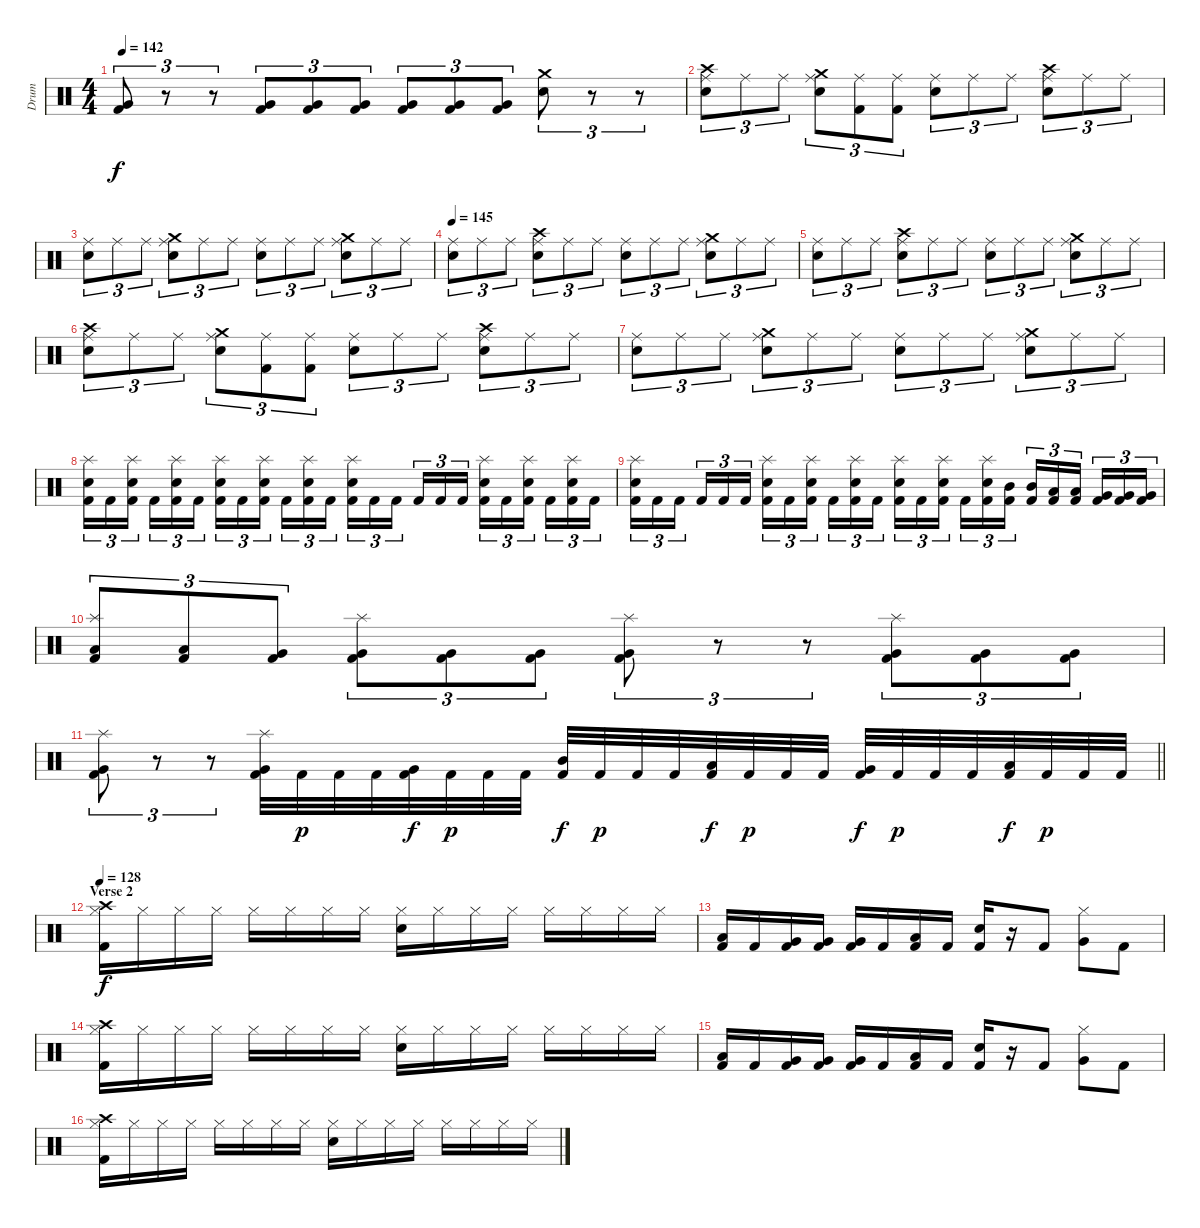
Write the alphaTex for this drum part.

\track ("Drum" "Drum") {instrument percussion}
\staff {score}
\articulation defaults
\ts (4 4)
\tempo 142
\clef neutral
\ks c
("Very Low Tom (hit)" "Kick (hit) 2").8{tu (3 2) dy f} r.8{tu (3 2)} r.8{tu (3 2)} ("Very Low Tom (hit)" "Kick (hit) 2").8{tu (3 2)} ("Very Low Tom (hit)" "Kick (hit) 2").8{tu (3 2)} ("Very Low Tom (hit)" "Kick (hit) 2").8{tu (3 2)} ("Very Low Tom (hit)" "Kick (hit) 2").8{tu (3 2)} ("Very Low Tom (hit)" "Kick (hit) 2").8{tu (3 2)} ("Very Low Tom (hit)" "Kick (hit) 2").8{tu (3 2)} ("Crash medium (hit)" "Electric Snare (hit)").8{tu (3 2)} r.8{tu (3 2)} r.8{tu (3 2)} |
("Crash high (hit)" "Ride (middle)" "Electric Snare (hit)").8{tu (3 2)} "Ride (middle)".8{tu (3 2)} "Ride (middle)".8{tu (3 2)} ("Crash medium (hit)" "Ride (middle)" "Electric Snare (hit)").8{tu (3 2)} ("Ride (middle)" "Kick (hit) 2").8{tu (3 2)} ("Ride (middle)" "Kick (hit) 2").8{tu (3 2)} ("Ride (middle)" "Electric Snare (hit)").8{tu (3 2)} "Ride (middle)".8{tu (3 2)} "Ride (middle)".8{tu (3 2)} ("Crash high (hit)" "Ride (middle)" "Electric Snare (hit)").8{tu (3 2)} "Ride (middle)".8{tu (3 2)} "Ride (middle)".8{tu (3 2)} |
("Ride (middle)" "Electric Snare (hit)").8{tu (3 2)} "Ride (middle)".8{tu (3 2)} "Ride (middle)".8{tu (3 2)} ("Crash medium (hit)" "Ride (middle)" "Electric Snare (hit)").8{tu (3 2)} "Ride (middle)".8{tu (3 2)} "Ride (middle)".8{tu (3 2)} ("Ride (middle)" "Electric Snare (hit)").8{tu (3 2)} "Ride (middle)".8{tu (3 2)} "Ride (middle)".8{tu (3 2)} ("Crash medium (hit)" "Ride (middle)" "Electric Snare (hit)").8{tu (3 2)} "Ride (middle)".8{tu (3 2)} "Ride (middle)".8{tu (3 2)} |
\tempo 145
("Ride (middle)" "Electric Snare (hit)").8{tu (3 2)} "Ride (middle)".8{tu (3 2)} "Ride (middle)".8{tu (3 2)} ("Crash high (hit)" "Ride (middle)" "Electric Snare (hit)").8{tu (3 2)} "Ride (middle)".8{tu (3 2)} "Ride (middle)".8{tu (3 2)} ("Ride (middle)" "Electric Snare (hit)").8{tu (3 2)} "Ride (middle)".8{tu (3 2)} "Ride (middle)".8{tu (3 2)} ("Crash medium (hit)" "Ride (middle)" "Electric Snare (hit)").8{tu (3 2)} "Ride (middle)".8{tu (3 2)} "Ride (middle)".8{tu (3 2)} |
("Ride (middle)" "Electric Snare (hit)").8{tu (3 2)} "Ride (middle)".8{tu (3 2)} "Ride (middle)".8{tu (3 2)} ("Crash high (hit)" "Ride (middle)" "Electric Snare (hit)").8{tu (3 2)} "Ride (middle)".8{tu (3 2)} "Ride (middle)".8{tu (3 2)} ("Ride (middle)" "Electric Snare (hit)").8{tu (3 2)} "Ride (middle)".8{tu (3 2)} "Ride (middle)".8{tu (3 2)} ("Crash medium (hit)" "Ride (middle)" "Electric Snare (hit)").8{tu (3 2)} "Ride (middle)".8{tu (3 2)} "Ride (middle)".8{tu (3 2)} |
("Crash high (hit)" "Ride (middle)" "Electric Snare (hit)").8{tu (3 2)} "Ride (middle)".8{tu (3 2)} "Ride (middle)".8{tu (3 2)} ("Crash medium (hit)" "Ride (middle)" "Electric Snare (hit)").8{tu (3 2)} ("Ride (middle)" "Kick (hit) 2").8{tu (3 2)} ("Ride (middle)" "Kick (hit) 2").8{tu (3 2)} ("Ride (middle)" "Electric Snare (hit)").8{tu (3 2)} "Ride (middle)".8{tu (3 2)} "Ride (middle)".8{tu (3 2)} ("Crash high (hit)" "Ride (middle)" "Electric Snare (hit)").8{tu (3 2)} "Ride (middle)".8{tu (3 2)} "Ride (middle)".8{tu (3 2)} |
("Ride (middle)" "Electric Snare (hit)").8{tu (3 2)} "Ride (middle)".8{tu (3 2)} "Ride (middle)".8{tu (3 2)} ("Crash medium (hit)" "Ride (middle)" "Electric Snare (hit)").8{tu (3 2)} "Ride (middle)".8{tu (3 2)} "Ride (middle)".8{tu (3 2)} ("Ride (middle)" "Electric Snare (hit)").8{tu (3 2)} "Ride (middle)".8{tu (3 2)} "Ride (middle)".8{tu (3 2)} ("Crash medium (hit)" "Ride (middle)" "Electric Snare (hit)").8{tu (3 2)} "Ride (middle)".8{tu (3 2)} "Ride (middle)".8{tu (3 2)} |
("Splash (hit)" "Electric Snare (hit)" "Kick (hit) 2").16{tu (3 2)} "Kick (hit) 2".16{tu (3 2)} ("Splash (hit)" "Electric Snare (hit)" "Kick (hit) 2").16{tu (3 2) beam splitsecondary} "Kick (hit) 2".16{tu (3 2)} ("Splash (hit)" "Electric Snare (hit)" "Kick (hit) 2").16{tu (3 2)} "Kick (hit) 2".16{tu (3 2)} ("Splash (hit)" "Electric Snare (hit)" "Kick (hit) 2").16{tu (3 2)} "Kick (hit) 2".16{tu (3 2)} ("Splash (hit)" "Electric Snare (hit)" "Kick (hit) 2").16{tu (3 2) beam splitsecondary} "Kick (hit) 2".16{tu (3 2)} ("Splash (hit)" "Electric Snare (hit)" "Kick (hit) 2").16{tu (3 2)} "Kick (hit) 2".16{tu (3 2)} ("Splash (hit)" "Electric Snare (hit)" "Kick (hit) 2").16{tu (3 2)} "Kick (hit) 2".16{tu (3 2)} "Kick (hit) 2".16{tu (3 2) beam splitsecondary} "Kick (hit) 2".16{tu (3 2)} "Kick (hit) 2".16{tu (3 2)} "Kick (hit) 2".16{tu (3 2)} ("Splash (hit)" "Electric Snare (hit)" "Kick (hit) 2").16{tu (3 2)} "Kick (hit) 2".16{tu (3 2)} ("Splash (hit)" "Electric Snare (hit)" "Kick (hit) 2").16{tu (3 2) beam splitsecondary} "Kick (hit) 2".16{tu (3 2)} ("Splash (hit)" "Electric Snare (hit)" "Kick (hit) 2").16{tu (3 2)} "Kick (hit) 2".16{tu (3 2)} |
("Splash (hit)" "Electric Snare (hit)" "Kick (hit) 2").16{tu (3 2)} "Kick (hit) 2".16{tu (3 2)} "Kick (hit) 2".16{tu (3 2) beam splitsecondary} "Kick (hit) 2".16{tu (3 2)} "Kick (hit) 2".16{tu (3 2)} "Kick (hit) 2".16{tu (3 2)} ("Splash (hit)" "Electric Snare (hit)" "Kick (hit) 2").16{tu (3 2)} "Kick (hit) 2".16{tu (3 2)} ("Splash (hit)" "Electric Snare (hit)" "Kick (hit) 2").16{tu (3 2) beam splitsecondary} "Kick (hit) 2".16{tu (3 2)} ("Splash (hit)" "Electric Snare (hit)" "Kick (hit) 2").16{tu (3 2)} "Kick (hit) 2".16{tu (3 2)} ("Splash (hit)" "Electric Snare (hit)" "Kick (hit) 2").16{tu (3 2)} "Kick (hit) 2".16{tu (3 2)} ("Splash (hit)" "Electric Snare (hit)" "Kick (hit) 2").16{tu (3 2) beam splitsecondary} "Kick (hit) 2".16{tu (3 2)} ("Splash (hit)" "Electric Snare (hit)" "Kick (hit) 2").16{tu (3 2)} ("Mid Tom (hit)" "Kick (hit) 2").16{tu (3 2)} ("Mid Tom (hit)" "Kick (hit) 2").16{tu (3 2)} ("Low Tom (hit)" "Kick (hit) 2").16{tu (3 2)} ("Low Tom (hit)" "Kick (hit) 2").16{tu (3 2) beam splitsecondary} ("Very Low Tom (hit)" "Kick (hit) 2").16{tu (3 2)} ("Very Low Tom (hit)" "Kick (hit) 2").16{tu (3 2)} ("Very Low Tom (hit)" "Kick (hit) 2").16{tu (3 2)} |
("Splash (hit)" "Low Tom (hit)" "Kick (hit) 2").8{tu (3 2)} ("Low Tom (hit)" "Kick (hit) 2").8{tu (3 2)} ("Very Low Tom (hit)" "Kick (hit) 2").8{tu (3 2)} ("Splash (hit)" "Very Low Tom (hit)" "Kick (hit) 2").8{tu (3 2)} ("Very Low Tom (hit)" "Kick (hit) 2").8{tu (3 2)} ("Very Low Tom (hit)" "Kick (hit) 2").8{tu (3 2)} ("Splash (hit)" "Very Low Tom (hit)" "Kick (hit) 2").8{tu (3 2)} r.8{tu (3 2)} r.8{tu (3 2)} ("Splash (hit)" "Very Low Tom (hit)" "Kick (hit) 2").8{tu (3 2)} ("Very Low Tom (hit)" "Kick (hit) 2").8{tu (3 2)} ("Very Low Tom (hit)" "Kick (hit) 2").8{tu (3 2)} |
\barLineRight lightlight
("Splash (hit)" "Very Low Tom (hit)" "Kick (hit) 2").8{tu (3 2)} r.8{tu (3 2)} r.8{tu (3 2)} ("Splash (hit)" "Very Low Tom (hit)" "Kick (hit) 2").32 "Kick (hit) 2".32{dy p} "Kick (hit) 2".32 "Kick (hit) 2".32 ("Very Low Tom (hit)" "Kick (hit) 2").32{dy f} "Kick (hit) 2".32{dy p} "Kick (hit) 2".32 "Kick (hit) 2".32 ("Mid Tom (hit)" "Kick (hit) 2").32{dy f} "Kick (hit) 2".32{dy p} "Kick (hit) 2".32 "Kick (hit) 2".32 ("Low Tom (hit)" "Kick (hit) 2").32{dy f} "Kick (hit) 2".32{dy p} "Kick (hit) 2".32 "Kick (hit) 2".32 ("Very Low Tom (hit)" "Kick (hit) 2").32{dy f} "Kick (hit) 2".32{dy p} "Kick (hit) 2".32 "Kick (hit) 2".32 ("Low Floor Tom (hit)" "Kick (hit) 2").32{dy f} "Kick (hit) 2".32{dy p} "Kick (hit) 2".32 "Kick (hit) 2".32 |
\section ("" "Verse 2")
\tempo 128
("Crash high (hit)" "Hi-Hat (closed)" "Kick (hit) 2").16{dy f} "Hi-Hat (closed)".16 "Hi-Hat (closed)".16 "Hi-Hat (closed)".16 "Hi-Hat (closed)".16 "Hi-Hat (closed)".16 "Hi-Hat (closed)".16 "Hi-Hat (closed)".16 ("Hi-Hat (closed)" "Electric Snare (hit)").16 "Hi-Hat (closed)".16 "Hi-Hat (closed)".16 "Hi-Hat (closed)".16 "Hi-Hat (closed)".16 "Hi-Hat (closed)".16 "Hi-Hat (closed)".16 "Hi-Hat (closed)".16 |
("Low Tom (hit)" "Kick (hit) 2").16 "Kick (hit) 2".16 ("Very Low Tom (hit)" "Kick (hit) 2").16 ("Very Low Tom (hit)" "Kick (hit) 2").16 ("Very Low Tom (hit)" "Kick (hit) 2").16 "Kick (hit) 2".16 ("Low Floor Tom (hit)" "Kick (hit) 2").16 "Kick (hit) 2".16 ("Electric Snare (hit)" "Kick (hit) 2").16 r.16 "Kick (hit) 2".8 ("Hi-Hat (closed)" "Very Low Tom (hit)").8 "Kick (hit) 2".8 |
("Crash high (hit)" "Hi-Hat (closed)" "Kick (hit) 2").16 "Hi-Hat (closed)".16 "Hi-Hat (closed)".16 "Hi-Hat (closed)".16 "Hi-Hat (closed)".16 "Hi-Hat (closed)".16 "Hi-Hat (closed)".16 "Hi-Hat (closed)".16 ("Hi-Hat (closed)" "Electric Snare (hit)").16 "Hi-Hat (closed)".16 "Hi-Hat (closed)".16 "Hi-Hat (closed)".16 "Hi-Hat (closed)".16 "Hi-Hat (closed)".16 "Hi-Hat (closed)".16 "Hi-Hat (closed)".16 |
("Low Tom (hit)" "Kick (hit) 2").16 "Kick (hit) 2".16 ("Very Low Tom (hit)" "Kick (hit) 2").16 ("Very Low Tom (hit)" "Kick (hit) 2").16 ("Very Low Tom (hit)" "Kick (hit) 2").16 "Kick (hit) 2".16 ("Low Floor Tom (hit)" "Kick (hit) 2").16 "Kick (hit) 2".16 ("Electric Snare (hit)" "Kick (hit) 2").16 r.16 "Kick (hit) 2".8 ("Hi-Hat (closed)" "Very Low Tom (hit)").8 "Kick (hit) 2".8 |
("Crash high (hit)" "Hi-Hat (closed)" "Kick (hit) 2").16 "Hi-Hat (closed)".16 "Hi-Hat (closed)".16 "Hi-Hat (closed)".16 "Hi-Hat (closed)".16 "Hi-Hat (closed)".16 "Hi-Hat (closed)".16 "Hi-Hat (closed)".16 ("Hi-Hat (closed)" "Electric Snare (hit)").16 "Hi-Hat (closed)".16 "Hi-Hat (closed)".16 "Hi-Hat (closed)".16 "Hi-Hat (closed)".16 "Hi-Hat (closed)".16 "Hi-Hat (closed)".16 "Hi-Hat (closed)".16
